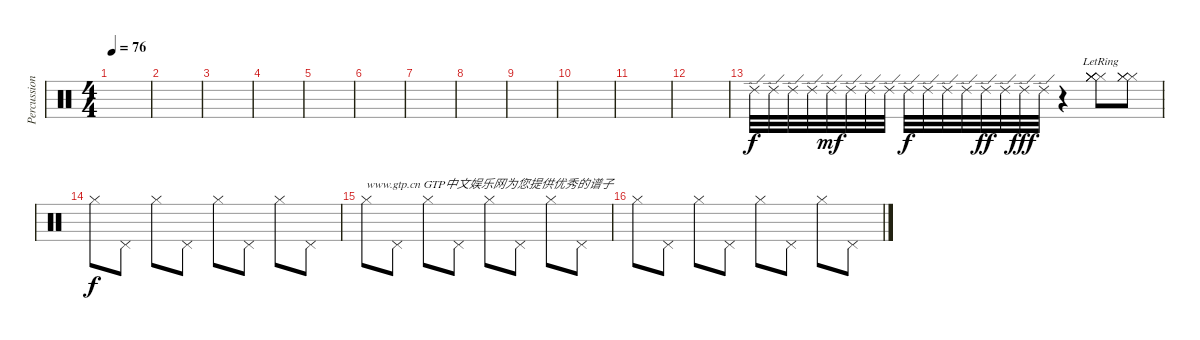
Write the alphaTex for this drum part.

\track ("Percussion" "Percussion") {instrument percussion}
\staff {score}
\articulation defaults
\ts (4 4)
\tempo 76
\clef neutral
\ks c
|
|
|
|
|
|
|
|
|
|
|
|
"Ride (edge) 2".32 "Ride (edge) 2".32 "Ride (edge) 2".32 "Ride (edge) 2".32 "Ride (edge) 2".32{dy mf} "Ride (edge) 2".32 "Ride (edge) 2".32 "Ride (edge) 2".32 "Ride (edge) 2".32{dy f} "Ride (edge) 2".32 "Ride (edge) 2".32 "Ride (edge) 2".32 "Ride (edge) 2".32{dy ff} "Ride (edge) 2".32 "Ride (edge) 2".32{dy fff} "Ride (edge) 2".32 r.4 ("Hi-Hat (closed)"{lr} "Hi-Hat (closed)"{lr} "Hi-Hat (closed)"{lr} "Hi-Hat (closed)"{lr}).8 ("Hi-Hat (closed)"{lr} "Hi-Hat (closed)"{lr} "Hi-Hat (closed)"{lr}).8 |
"Hi-Hat (closed)".8{dy f} "Pedal Hi-Hat (hit)".8 "Hi-Hat (closed)".8 "Pedal Hi-Hat (hit)".8 "Hi-Hat (closed)".8 "Pedal Hi-Hat (hit)".8 "Hi-Hat (closed)".8 "Pedal Hi-Hat (hit)".8 |
"Hi-Hat (closed)".8{txt "www.gtp.cn GTP中文娱乐网为您提供优秀的谱子"} "Pedal Hi-Hat (hit)".8 "Hi-Hat (closed)".8 "Pedal Hi-Hat (hit)".8 "Hi-Hat (closed)".8 "Pedal Hi-Hat (hit)".8 "Hi-Hat (closed)".8 "Pedal Hi-Hat (hit)".8 |
"Hi-Hat (closed)".8 "Pedal Hi-Hat (hit)".8 "Hi-Hat (closed)".8 "Pedal Hi-Hat (hit)".8 "Hi-Hat (closed)".8 "Pedal Hi-Hat (hit)".8 "Hi-Hat (closed)".8 "Pedal Hi-Hat (hit)".8
